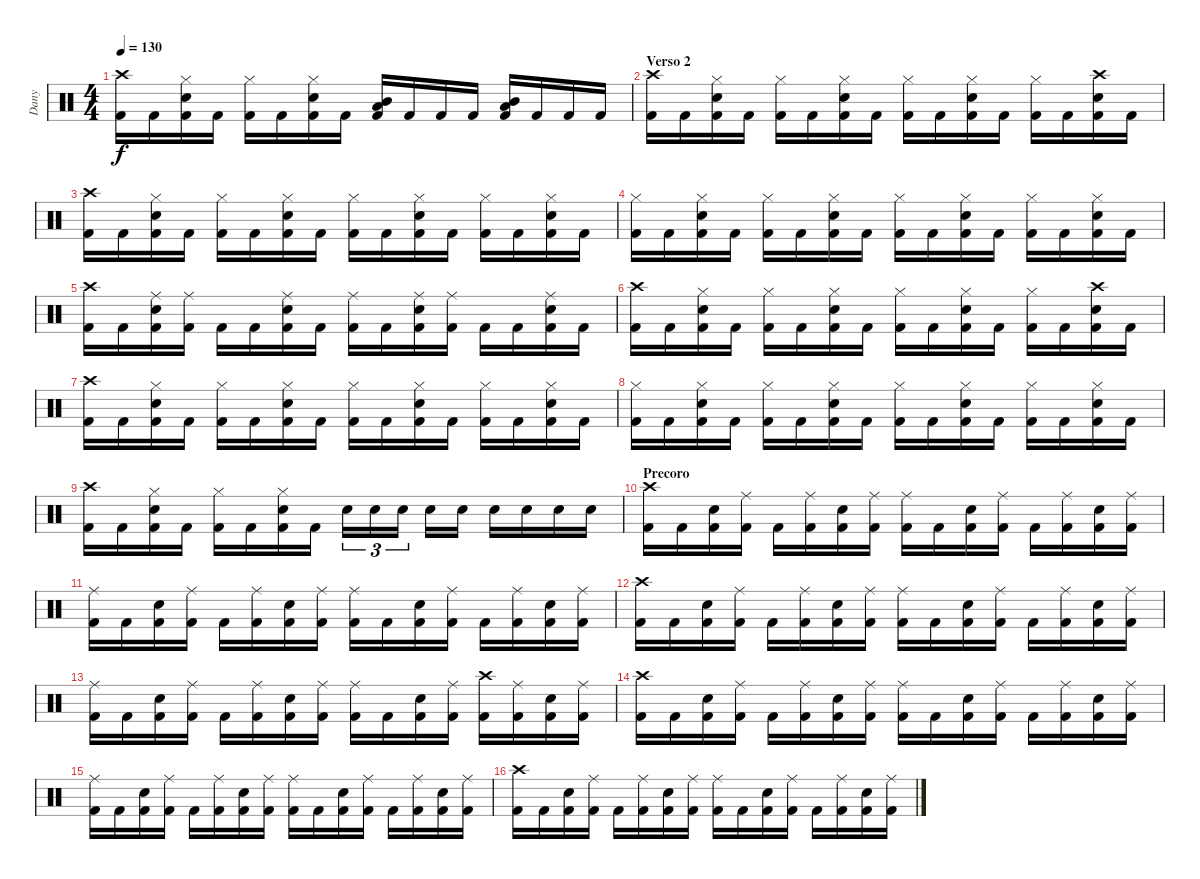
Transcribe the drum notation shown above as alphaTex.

\track ("Dany" "Dany") {instrument percussion}
\staff {score}
\articulation defaults
\ts (4 4)
\tempo 130
\clef neutral
\ks c
("Kick (hit) 2" "Crash high (hit)").16{dy f} "Kick (hit) 2".16 ("Kick (hit) 2" "Electric Snare (hit)" "Hi-Hat (closed)").16 "Kick (hit) 2".16 ("Kick (hit) 2" "Hi-Hat (closed)").16 "Kick (hit) 2".16 ("Kick (hit) 2" "Electric Snare (hit)" "Hi-Hat (closed)").16 "Kick (hit) 2".16 ("Kick (hit) 2" "Low Tom (hit)" "Mid Tom (hit)").16 "Kick (hit) 2".16 "Kick (hit) 2".16 "Kick (hit) 2".16 ("Kick (hit) 2" "Low Tom (hit)" "Mid Tom (hit)").16 "Kick (hit) 2".16 "Kick (hit) 2".16 "Kick (hit) 2".16 |
\section ("" "Verso 2")
("Kick (hit) 2" "Crash high (hit)").16 "Kick (hit) 2".16 ("Kick (hit) 2" "Electric Snare (hit)" "Hi-Hat (closed)").16 "Kick (hit) 2".16 ("Kick (hit) 2" "Hi-Hat (closed)").16 "Kick (hit) 2".16 ("Kick (hit) 2" "Electric Snare (hit)" "Hi-Hat (closed)").16 "Kick (hit) 2".16 ("Kick (hit) 2" "Hi-Hat (closed)").16 "Kick (hit) 2".16 ("Kick (hit) 2" "Electric Snare (hit)" "Hi-Hat (closed)").16 "Kick (hit) 2".16 ("Kick (hit) 2" "Hi-Hat (closed)").16 "Kick (hit) 2".16 ("Kick (hit) 2" "Electric Snare (hit)" "Crash high (hit)").16 "Kick (hit) 2".16 |
("Kick (hit) 2" "Crash high (hit)").16 "Kick (hit) 2".16 ("Kick (hit) 2" "Electric Snare (hit)" "Hi-Hat (closed)").16 "Kick (hit) 2".16 ("Kick (hit) 2" "Hi-Hat (closed)").16 "Kick (hit) 2".16 ("Kick (hit) 2" "Electric Snare (hit)" "Hi-Hat (closed)").16 "Kick (hit) 2".16 ("Kick (hit) 2" "Hi-Hat (closed)").16 "Kick (hit) 2".16 ("Kick (hit) 2" "Electric Snare (hit)" "Hi-Hat (closed)").16 "Kick (hit) 2".16 ("Kick (hit) 2" "Hi-Hat (closed)").16 "Kick (hit) 2".16 ("Kick (hit) 2" "Electric Snare (hit)" "Hi-Hat (closed)").16 "Kick (hit) 2".16 |
("Kick (hit) 2" "Hi-Hat (closed)").16 "Kick (hit) 2".16 ("Kick (hit) 2" "Electric Snare (hit)" "Hi-Hat (closed)").16 "Kick (hit) 2".16 ("Kick (hit) 2" "Hi-Hat (closed)").16 "Kick (hit) 2".16 ("Kick (hit) 2" "Electric Snare (hit)" "Hi-Hat (closed)").16 "Kick (hit) 2".16 ("Kick (hit) 2" "Hi-Hat (closed)").16 "Kick (hit) 2".16 ("Kick (hit) 2" "Electric Snare (hit)" "Hi-Hat (closed)").16 "Kick (hit) 2".16 ("Kick (hit) 2" "Hi-Hat (closed)").16 "Kick (hit) 2".16 ("Kick (hit) 2" "Electric Snare (hit)" "Hi-Hat (closed)").16 "Kick (hit) 2".16 |
("Kick (hit) 2" "Crash high (hit)").16 "Kick (hit) 2".16 ("Kick (hit) 2" "Electric Snare (hit)" "Ride (middle)").16 ("Kick (hit) 2" "Ride (middle)").16 "Kick (hit) 2".16 "Kick (hit) 2".16 ("Kick (hit) 2" "Electric Snare (hit)" "Ride (middle)").16 "Kick (hit) 2".16 ("Kick (hit) 2" "Ride (middle)").16 "Kick (hit) 2".16 ("Kick (hit) 2" "Electric Snare (hit)" "Ride (middle)").16 ("Kick (hit) 2" "Ride (middle)").16 "Kick (hit) 2".16 "Kick (hit) 2".16 ("Kick (hit) 2" "Electric Snare (hit)" "Ride (middle)").16 "Kick (hit) 2".16 |
("Kick (hit) 2" "Crash high (hit)").16 "Kick (hit) 2".16 ("Kick (hit) 2" "Electric Snare (hit)" "Hi-Hat (closed)").16 "Kick (hit) 2".16 ("Kick (hit) 2" "Hi-Hat (closed)").16 "Kick (hit) 2".16 ("Kick (hit) 2" "Electric Snare (hit)" "Hi-Hat (closed)").16 "Kick (hit) 2".16 ("Kick (hit) 2" "Hi-Hat (closed)").16 "Kick (hit) 2".16 ("Kick (hit) 2" "Electric Snare (hit)" "Hi-Hat (closed)").16 "Kick (hit) 2".16 ("Kick (hit) 2" "Hi-Hat (closed)").16 "Kick (hit) 2".16 ("Kick (hit) 2" "Electric Snare (hit)" "Crash high (hit)").16 "Kick (hit) 2".16 |
("Kick (hit) 2" "Crash high (hit)").16 "Kick (hit) 2".16 ("Kick (hit) 2" "Electric Snare (hit)" "Hi-Hat (closed)").16 "Kick (hit) 2".16 ("Kick (hit) 2" "Hi-Hat (closed)").16 "Kick (hit) 2".16 ("Kick (hit) 2" "Electric Snare (hit)" "Hi-Hat (closed)").16 "Kick (hit) 2".16 ("Kick (hit) 2" "Hi-Hat (closed)").16 "Kick (hit) 2".16 ("Kick (hit) 2" "Electric Snare (hit)" "Hi-Hat (closed)").16 "Kick (hit) 2".16 ("Kick (hit) 2" "Hi-Hat (closed)").16 "Kick (hit) 2".16 ("Kick (hit) 2" "Electric Snare (hit)" "Hi-Hat (closed)").16 "Kick (hit) 2".16 |
("Kick (hit) 2" "Hi-Hat (closed)").16 "Kick (hit) 2".16 ("Kick (hit) 2" "Electric Snare (hit)" "Hi-Hat (closed)").16 "Kick (hit) 2".16 ("Kick (hit) 2" "Hi-Hat (closed)").16 "Kick (hit) 2".16 ("Kick (hit) 2" "Electric Snare (hit)" "Hi-Hat (closed)").16 "Kick (hit) 2".16 ("Kick (hit) 2" "Hi-Hat (closed)").16 "Kick (hit) 2".16 ("Kick (hit) 2" "Electric Snare (hit)" "Hi-Hat (closed)").16 "Kick (hit) 2".16 ("Kick (hit) 2" "Hi-Hat (closed)").16 "Kick (hit) 2".16 ("Kick (hit) 2" "Electric Snare (hit)" "Hi-Hat (closed)").16 "Kick (hit) 2".16 |
("Kick (hit) 2" "Crash high (hit)").16 "Kick (hit) 2".16 ("Kick (hit) 2" "Electric Snare (hit)" "Hi-Hat (closed)").16 "Kick (hit) 2".16 ("Kick (hit) 2" "Hi-Hat (closed)").16 "Kick (hit) 2".16 ("Kick (hit) 2" "Electric Snare (hit)" "Hi-Hat (closed)").16 "Kick (hit) 2".16 "Electric Snare (hit)".16{tu (3 2)} "Electric Snare (hit)".16{tu (3 2)} "Electric Snare (hit)".16{tu (3 2)} "Electric Snare (hit)".16 "Electric Snare (hit)".16 "Electric Snare (hit)".16 "Electric Snare (hit)".16 "Electric Snare (hit)".16 "Electric Snare (hit)".16 |
\section ("" "Precoro")
("Kick (hit) 2" "Crash high (hit)").16 "Kick (hit) 2".16 ("Kick (hit) 2" "Electric Snare (hit)").16 ("Kick (hit) 2" "Ride (middle)").16 "Kick (hit) 2".16 ("Kick (hit) 2" "Ride (middle)").16 ("Kick (hit) 2" "Electric Snare (hit)").16 ("Kick (hit) 2" "Ride (middle)").16 ("Kick (hit) 2" "Ride (middle)").16 "Kick (hit) 2".16 ("Kick (hit) 2" "Electric Snare (hit)").16 ("Kick (hit) 2" "Ride (middle)").16 "Kick (hit) 2".16 ("Kick (hit) 2" "Ride (middle)").16 ("Kick (hit) 2" "Electric Snare (hit)").16 ("Kick (hit) 2" "Ride (middle)").16 |
("Kick (hit) 2" "Ride (middle)").16 "Kick (hit) 2".16 ("Kick (hit) 2" "Electric Snare (hit)").16 ("Kick (hit) 2" "Ride (middle)").16 "Kick (hit) 2".16 ("Kick (hit) 2" "Ride (middle)").16 ("Kick (hit) 2" "Electric Snare (hit)").16 ("Kick (hit) 2" "Ride (middle)").16 ("Kick (hit) 2" "Ride (middle)").16 "Kick (hit) 2".16 ("Kick (hit) 2" "Electric Snare (hit)").16 ("Kick (hit) 2" "Ride (middle)").16 "Kick (hit) 2".16 ("Kick (hit) 2" "Ride (middle)").16 ("Kick (hit) 2" "Electric Snare (hit)").16 ("Kick (hit) 2" "Ride (middle)").16 |
("Kick (hit) 2" "Crash high (hit)").16 "Kick (hit) 2".16 ("Kick (hit) 2" "Electric Snare (hit)").16 ("Kick (hit) 2" "Ride (middle)").16 "Kick (hit) 2".16 ("Kick (hit) 2" "Ride (middle)").16 ("Kick (hit) 2" "Electric Snare (hit)").16 ("Kick (hit) 2" "Ride (middle)").16 ("Kick (hit) 2" "Ride (middle)").16 "Kick (hit) 2".16 ("Kick (hit) 2" "Electric Snare (hit)").16 ("Kick (hit) 2" "Ride (middle)").16 "Kick (hit) 2".16 ("Kick (hit) 2" "Ride (middle)").16 ("Kick (hit) 2" "Electric Snare (hit)").16 ("Kick (hit) 2" "Ride (middle)").16 |
("Kick (hit) 2" "Ride (middle)").16 "Kick (hit) 2".16 ("Kick (hit) 2" "Electric Snare (hit)").16 ("Kick (hit) 2" "Ride (middle)").16 "Kick (hit) 2".16 ("Kick (hit) 2" "Ride (middle)").16 ("Kick (hit) 2" "Electric Snare (hit)").16 ("Kick (hit) 2" "Ride (middle)").16 ("Kick (hit) 2" "Ride (middle)").16 "Kick (hit) 2".16 ("Kick (hit) 2" "Electric Snare (hit)").16 ("Kick (hit) 2" "Ride (middle)").16 ("Kick (hit) 2" "Crash high (hit)").16 ("Kick (hit) 2" "Ride (middle)").16 ("Kick (hit) 2" "Electric Snare (hit)").16 ("Kick (hit) 2" "Ride (middle)").16 |
("Kick (hit) 2" "Crash high (hit)").16 "Kick (hit) 2".16 ("Kick (hit) 2" "Electric Snare (hit)").16 ("Kick (hit) 2" "Ride (middle)").16 "Kick (hit) 2".16 ("Kick (hit) 2" "Ride (middle)").16 ("Kick (hit) 2" "Electric Snare (hit)").16 ("Kick (hit) 2" "Ride (middle)").16 ("Kick (hit) 2" "Ride (middle)").16 "Kick (hit) 2".16 ("Kick (hit) 2" "Electric Snare (hit)").16 ("Kick (hit) 2" "Ride (middle)").16 "Kick (hit) 2".16 ("Kick (hit) 2" "Ride (middle)").16 ("Kick (hit) 2" "Electric Snare (hit)").16 ("Kick (hit) 2" "Ride (middle)").16 |
("Kick (hit) 2" "Ride (middle)").16 "Kick (hit) 2".16 ("Kick (hit) 2" "Electric Snare (hit)").16 ("Kick (hit) 2" "Ride (middle)").16 "Kick (hit) 2".16 ("Kick (hit) 2" "Ride (middle)").16 ("Kick (hit) 2" "Electric Snare (hit)").16 ("Kick (hit) 2" "Ride (middle)").16 ("Kick (hit) 2" "Ride (middle)").16 "Kick (hit) 2".16 ("Kick (hit) 2" "Electric Snare (hit)").16 ("Kick (hit) 2" "Ride (middle)").16 "Kick (hit) 2".16 ("Kick (hit) 2" "Ride (middle)").16 ("Kick (hit) 2" "Electric Snare (hit)").16 ("Kick (hit) 2" "Ride (middle)").16 |
("Kick (hit) 2" "Crash high (hit)").16 "Kick (hit) 2".16 ("Kick (hit) 2" "Electric Snare (hit)").16 ("Kick (hit) 2" "Ride (middle)").16 "Kick (hit) 2".16 ("Kick (hit) 2" "Ride (middle)").16 ("Kick (hit) 2" "Electric Snare (hit)").16 ("Kick (hit) 2" "Ride (middle)").16 ("Kick (hit) 2" "Ride (middle)").16 "Kick (hit) 2".16 ("Kick (hit) 2" "Electric Snare (hit)").16 ("Kick (hit) 2" "Ride (middle)").16 "Kick (hit) 2".16 ("Kick (hit) 2" "Ride (middle)").16 ("Kick (hit) 2" "Electric Snare (hit)").16 ("Kick (hit) 2" "Ride (middle)").16
